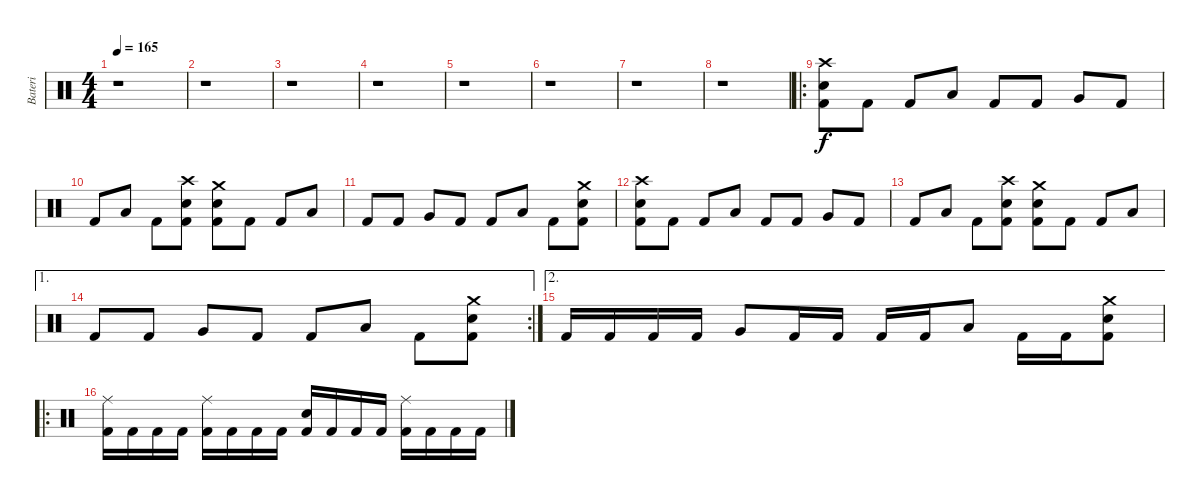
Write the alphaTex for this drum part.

\track ("Bateri" "Bateri") {instrument percussion}
\staff {score}
\articulation defaults
\ts (4 4)
\tempo 165
\clef neutral
\ks c
r.1{dy f} |
r.1 |
r.1 |
r.1 |
r.1 |
r.1 |
r.1 |
r.1 |
\ro
("Crash high (hit)" "Snare (hit) 2" "Kick (hit) 2").8 "Kick (hit) 2".8 "Kick (hit) 2".8 "Low Tom (hit)".8 "Kick (hit) 2".8 "Kick (hit) 2".8 "Very Low Tom (hit)".8 "Kick (hit) 2".8 |
"Kick (hit) 2".8 "Low Floor Tom (hit)".8 "Kick (hit) 2".8 ("Crash high (hit)" "Snare (hit) 2" "Kick (hit) 2").8 ("Crash medium (hit)" "Snare (hit) 2" "Kick (hit) 2").8 "Kick (hit) 2".8 "Kick (hit) 2".8 "Low Tom (hit)".8 |
"Kick (hit) 2".8 "Kick (hit) 2".8 "Very Low Tom (hit)".8 "Kick (hit) 2".8 "Kick (hit) 2".8 "Low Floor Tom (hit)".8 "Kick (hit) 2".8 ("Crash medium (hit)" "Snare (hit) 2" "Kick (hit) 2").8 |
("Crash high (hit)" "Snare (hit) 2" "Kick (hit) 2").8 "Kick (hit) 2".8 "Kick (hit) 2".8 "Low Tom (hit)".8 "Kick (hit) 2".8 "Kick (hit) 2".8 "Very Low Tom (hit)".8 "Kick (hit) 2".8 |
"Kick (hit) 2".8 "Low Floor Tom (hit)".8 "Kick (hit) 2".8 ("Crash high (hit)" "Snare (hit) 2" "Kick (hit) 2").8 ("Crash medium (hit)" "Snare (hit) 2" "Kick (hit) 2").8 "Kick (hit) 2".8 "Kick (hit) 2".8 "Low Tom (hit)".8 |
\ae 1
\rc 2 "Kick (hit) 2".8 "Kick (hit) 2".8 "Very Low Tom (hit)".8 "Kick (hit) 2".8 "Kick (hit) 2".8 "Low Floor Tom (hit)".8 "Kick (hit) 2".8
("Crash medium (hit)" "Snare (hit) 2" "Kick (hit) 2").8 |
\ae 2 "Kick (hit) 2".16 "Kick (hit) 2".16 "Kick (hit) 2".16 "Kick (hit) 2".16 "Very Low Tom (hit)".8 "Kick (hit) 2".16 "Kick (hit) 2".16 "Kick (hit) 2".16 "Kick (hit) 2".16 "Low Floor Tom (hit)".8 "Kick (hit) 2".16 "Kick (hit) 2".16
("Crash medium (hit)" "Snare (hit) 2" "Kick (hit) 2").8 |
\ro
("Ride (middle)" "Kick (hit) 2").16 "Kick (hit) 2".16 "Kick (hit) 2".16 "Kick (hit) 2".16 ("Ride (middle)" "Kick (hit) 2").16 "Kick (hit) 2".16 "Kick (hit) 2".16 "Kick (hit) 2".16 ("Snare (hit) 2" "Kick (hit) 2").16 "Kick (hit) 2".16 "Kick (hit) 2".16 "Kick (hit) 2".16 ("Ride (middle)" "Kick (hit) 2").16 "Kick (hit) 2".16 "Kick (hit) 2".16 "Kick (hit) 2".16
